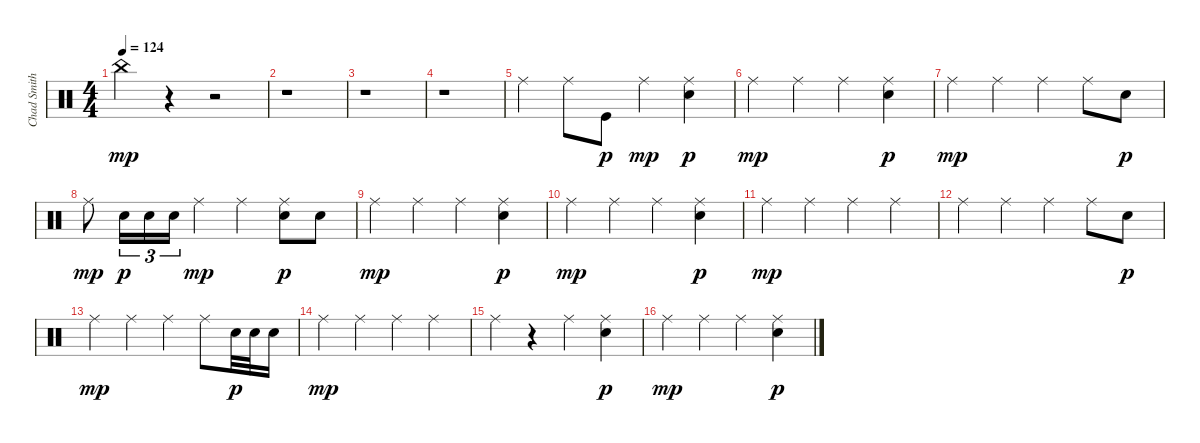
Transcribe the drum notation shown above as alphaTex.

\track ("Chad Smith" "Chad Smith") {instrument percussion}
\staff {score}
\articulation defaults
\ts (4 4)
\tempo 124
\tempo 88
\tempo 124
\clef neutral
\ks c "China (hit)".4{dy mp}
r.4 r.2 |
r.1 |
r.1 |
r.1 |
"Ride (middle)".4 "Ride (middle)".8 "Kick (hit)".8{dy p} "Ride (middle)".4{dy mp} ("Ride (middle)" "Electric Snare (hit)").4{dy p} |
"Ride (middle)".4{dy mp} "Ride (middle)".4 "Ride (middle)".4 ("Ride (middle)" "Electric Snare (hit)").4{dy p} |
"Ride (middle)".4{dy mp} "Ride (middle)".4 "Ride (middle)".4 "Ride (middle)".8 "Electric Snare (hit)".8{dy p} |
"Ride (middle)".8{dy mp} "Electric Snare (hit)".16{tu (3 2) dy p} "Electric Snare (hit)".16{tu (3 2)} "Electric Snare (hit)".16{tu (3 2)} "Ride (middle)".4{dy mp} "Ride (middle)".4 ("Ride (middle)" "Electric Snare (hit)").8{dy p} "Electric Snare (hit)".8 |
"Ride (middle)".4{dy mp} "Ride (middle)".4 "Ride (middle)".4 ("Ride (middle)" "Electric Snare (hit)").4{dy p} |
"Ride (middle)".4{dy mp} "Ride (middle)".4 "Ride (middle)".4 ("Ride (middle)" "Electric Snare (hit)").4{dy p} |
"Ride (middle)".4{dy mp} "Ride (middle)".4 "Ride (middle)".4 "Ride (middle)".4 |
"Ride (middle)".4 "Ride (middle)".4 "Ride (middle)".4 "Ride (middle)".8 "Electric Snare (hit)".8{dy p} |
"Ride (middle)".4{dy mp} "Ride (middle)".4 "Ride (middle)".4 "Ride (middle)".8 "Electric Snare (hit)".32{dy p} "Electric Snare (hit)".32 "Electric Snare (hit)".16 |
"Ride (middle)".4{dy mp} "Ride (middle)".4 "Ride (middle)".4 "Ride (middle)".4 |
"Ride (middle)".4 r.4 "Ride (middle)".4 ("Ride (middle)" "Electric Snare (hit)").4{dy p} |
"Ride (middle)".4{dy mp} "Ride (middle)".4 "Ride (middle)".4 ("Ride (middle)" "Electric Snare (hit)").4{dy p}
